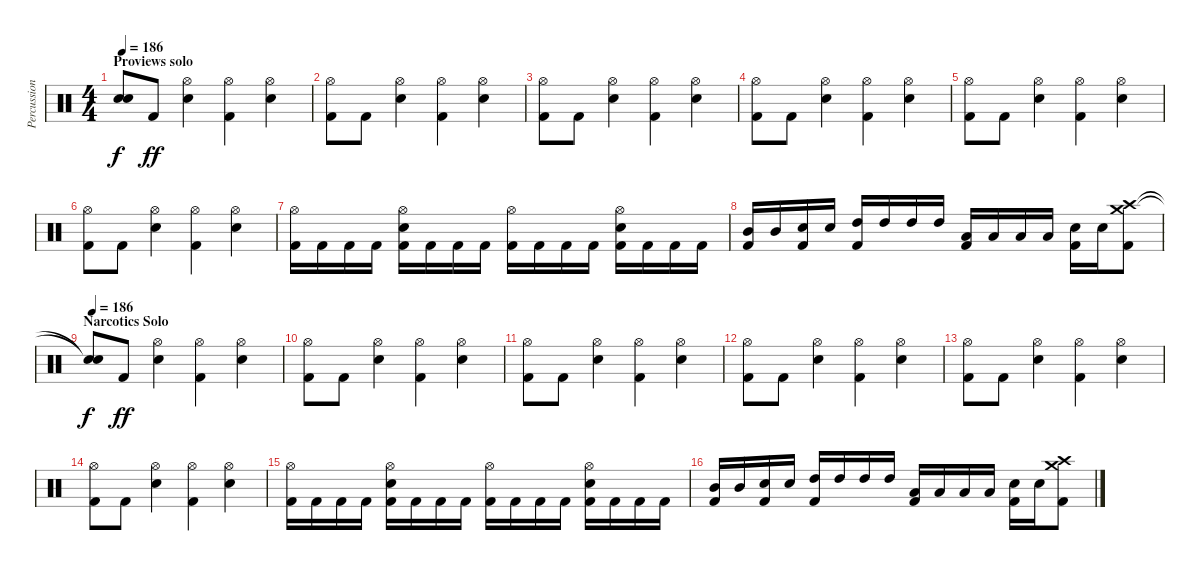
\track ("Percussion" "Percussion") {instrument percussion}
\staff {score}
\articulation defaults
\ts (4 4)
\section ("" "Proviews solo")
\tempo 186
\clef neutral
\ks c
("Snare (hit)"{t} "Snare (hit)"{t}).8{dy f} "Kick (hit) 2".8{dy ff} ("Hi-Hat (open)" "Snare (hit) 2").4 ("Hi-Hat (open)" "Kick (hit) 2").4 ("Hi-Hat (open)" "Snare (hit) 2").4 |
("Hi-Hat (open)" "Kick (hit) 2").8 "Kick (hit) 2".8 ("Hi-Hat (open)" "Snare (hit) 2").4 ("Hi-Hat (open)" "Kick (hit) 2").4 ("Hi-Hat (open)" "Snare (hit) 2").4 |
("Hi-Hat (open)" "Kick (hit) 2").8 "Kick (hit) 2".8 ("Hi-Hat (open)" "Snare (hit) 2").4 ("Hi-Hat (open)" "Kick (hit) 2").4 ("Hi-Hat (open)" "Snare (hit) 2").4 |
("Hi-Hat (open)" "Kick (hit) 2").8 "Kick (hit) 2".8 ("Hi-Hat (open)" "Snare (hit) 2").4 ("Hi-Hat (open)" "Kick (hit) 2").4 ("Hi-Hat (open)" "Snare (hit) 2").4 |
("Hi-Hat (open)" "Kick (hit) 2").8 "Kick (hit) 2".8 ("Hi-Hat (open)" "Snare (hit) 2").4 ("Hi-Hat (open)" "Kick (hit) 2").4 ("Hi-Hat (open)" "Snare (hit) 2").4 |
("Hi-Hat (open)" "Kick (hit) 2").8 "Kick (hit) 2".8 ("Hi-Hat (open)" "Snare (hit) 2").4 ("Hi-Hat (open)" "Kick (hit) 2").4 ("Hi-Hat (open)" "Snare (hit) 2").4 |
("Hi-Hat (open)" "Kick (hit) 2").16 "Kick (hit) 2".16 "Kick (hit) 2".16 "Kick (hit) 2".16 ("Hi-Hat (open)" "Snare (hit) 2" "Kick (hit) 2").16 "Kick (hit) 2".16 "Kick (hit) 2".16 "Kick (hit) 2".16 ("Hi-Hat (open)" "Kick (hit) 2").16 "Kick (hit) 2".16 "Kick (hit) 2".16 "Kick (hit) 2".16 ("Hi-Hat (open)" "Snare (hit) 2" "Kick (hit) 2").16 "Kick (hit) 2".16 "Kick (hit) 2".16 "Kick (hit) 2".16 |
("Mid Tom (hit)" "Kick (hit) 2").16 "Mid Tom (hit)".16 ("Snare (hit) 2" "Kick (hit) 2").16 "Snare (hit) 2".16 ("High Tom (hit)" "Kick (hit) 2").16 "High Tom (hit)".16 "High Tom (hit)".16 "High Tom (hit)".16 ("Low Tom (hit)" "Kick (hit) 2").16 "Low Tom (hit)".16 "Low Tom (hit)".16 "Low Tom (hit)".16 ("Snare (hit) 2" "Kick (hit) 2").16 "Snare (hit) 2".16 ("Crash medium (hit)" "Crash high (hit)" "Kick (hit) 2").8 |
\section ("" "Narcotics Solo")
\tempo 186
("Snare (hit)"{t} "Snare (hit)"{t}).8{dy f} "Kick (hit) 2".8{dy ff} ("Hi-Hat (open)" "Snare (hit) 2").4 ("Hi-Hat (open)" "Kick (hit) 2").4 ("Hi-Hat (open)" "Snare (hit) 2").4 |
("Hi-Hat (open)" "Kick (hit) 2").8 "Kick (hit) 2".8 ("Hi-Hat (open)" "Snare (hit) 2").4 ("Hi-Hat (open)" "Kick (hit) 2").4 ("Hi-Hat (open)" "Snare (hit) 2").4 |
("Hi-Hat (open)" "Kick (hit) 2").8 "Kick (hit) 2".8 ("Hi-Hat (open)" "Snare (hit) 2").4 ("Hi-Hat (open)" "Kick (hit) 2").4 ("Hi-Hat (open)" "Snare (hit) 2").4 |
("Hi-Hat (open)" "Kick (hit) 2").8 "Kick (hit) 2".8 ("Hi-Hat (open)" "Snare (hit) 2").4 ("Hi-Hat (open)" "Kick (hit) 2").4 ("Hi-Hat (open)" "Snare (hit) 2").4 |
("Hi-Hat (open)" "Kick (hit) 2").8 "Kick (hit) 2".8 ("Hi-Hat (open)" "Snare (hit) 2").4 ("Hi-Hat (open)" "Kick (hit) 2").4 ("Hi-Hat (open)" "Snare (hit) 2").4 |
("Hi-Hat (open)" "Kick (hit) 2").8 "Kick (hit) 2".8 ("Hi-Hat (open)" "Snare (hit) 2").4 ("Hi-Hat (open)" "Kick (hit) 2").4 ("Hi-Hat (open)" "Snare (hit) 2").4 |
("Hi-Hat (open)" "Kick (hit) 2").16 "Kick (hit) 2".16 "Kick (hit) 2".16 "Kick (hit) 2".16 ("Hi-Hat (open)" "Snare (hit) 2" "Kick (hit) 2").16 "Kick (hit) 2".16 "Kick (hit) 2".16 "Kick (hit) 2".16 ("Hi-Hat (open)" "Kick (hit) 2").16 "Kick (hit) 2".16 "Kick (hit) 2".16 "Kick (hit) 2".16 ("Hi-Hat (open)" "Snare (hit) 2" "Kick (hit) 2").16 "Kick (hit) 2".16 "Kick (hit) 2".16 "Kick (hit) 2".16 |
("Mid Tom (hit)" "Kick (hit) 2").16 "Mid Tom (hit)".16 ("Snare (hit) 2" "Kick (hit) 2").16 "Snare (hit) 2".16 ("High Tom (hit)" "Kick (hit) 2").16 "High Tom (hit)".16 "High Tom (hit)".16 "High Tom (hit)".16 ("Low Tom (hit)" "Kick (hit) 2").16 "Low Tom (hit)".16 "Low Tom (hit)".16 "Low Tom (hit)".16 ("Snare (hit) 2" "Kick (hit) 2").16 "Snare (hit) 2".16 ("Crash medium (hit)" "Crash high (hit)" "Kick (hit) 2").8
